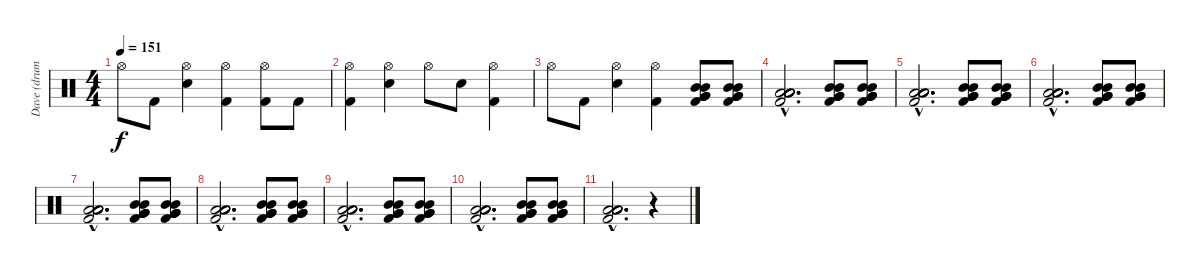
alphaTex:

\track ("Dave (drums)" "Dave (drum") {instrument percussion}
\staff {score}
\articulation defaults
\ts (4 4)
\tempo 151
\clef neutral
\ks c "Hi-Hat (open)".8{dy f} "Kick (hit) 2".8
("Hi-Hat (open)" "Electric Snare (hit)").4 ("Hi-Hat (open)" "Kick (hit) 2").4 ("Hi-Hat (open)" "Kick (hit) 2").8 "Kick (hit) 2".8 |
("Hi-Hat (open)" "Kick (hit) 2").4 ("Hi-Hat (open)" "Electric Snare (hit)").4 "Hi-Hat (open)".8 "Electric Snare (hit)".8 ("Hi-Hat (open)" "Kick (hit) 2").4 |
"Hi-Hat (open)".8 "Kick (hit) 2".8 ("Hi-Hat (open)" "Electric Snare (hit)").4 ("Hi-Hat (open)" "Kick (hit) 2").4 ("Very Low Tom (hit)" "Very Low Tom (hit)" "Very Low Tom (hit)" "Mid Tom (hit)" "Mid Tom (hit)" "Kick (hit) 2").8 ("Very Low Tom (hit)" "Very Low Tom (hit)" "Very Low Tom (hit)" "Mid Tom (hit)" "Mid Tom (hit)" "Kick (hit) 2").8 |
("Low Floor Tom (hit)"{hac} "Low Floor Tom (hit)"{hac} "Low Floor Tom (hit)"{hac} "Low Tom (hit)"{hac} "Low Tom (hit)"{hac} "Kick (hit) 2"{hac}).2{d} ("Very Low Tom (hit)" "Very Low Tom (hit)" "Very Low Tom (hit)" "Mid Tom (hit)" "Mid Tom (hit)" "Kick (hit) 2").8 ("Very Low Tom (hit)" "Very Low Tom (hit)" "Very Low Tom (hit)" "Mid Tom (hit)" "Mid Tom (hit)" "Kick (hit) 2").8 |
("Low Floor Tom (hit)"{hac} "Low Floor Tom (hit)"{hac} "Low Floor Tom (hit)"{hac} "Low Tom (hit)"{hac} "Low Tom (hit)"{hac} "Kick (hit) 2"{hac}).2{d} ("Very Low Tom (hit)" "Very Low Tom (hit)" "Very Low Tom (hit)" "Mid Tom (hit)" "Mid Tom (hit)" "Kick (hit) 2").8 ("Very Low Tom (hit)" "Very Low Tom (hit)" "Very Low Tom (hit)" "Mid Tom (hit)" "Mid Tom (hit)" "Kick (hit) 2").8 |
("Low Floor Tom (hit)"{hac} "Low Floor Tom (hit)"{hac} "Low Floor Tom (hit)"{hac} "Low Tom (hit)"{hac} "Low Tom (hit)"{hac} "Kick (hit) 2"{hac}).2{d} ("Very Low Tom (hit)" "Very Low Tom (hit)" "Very Low Tom (hit)" "Mid Tom (hit)" "Mid Tom (hit)" "Kick (hit) 2").8 ("Very Low Tom (hit)" "Very Low Tom (hit)" "Very Low Tom (hit)" "Mid Tom (hit)" "Mid Tom (hit)" "Kick (hit) 2").8 |
("Low Floor Tom (hit)"{hac} "Low Floor Tom (hit)"{hac} "Low Floor Tom (hit)"{hac} "Low Tom (hit)"{hac} "Low Tom (hit)"{hac} "Kick (hit) 2"{hac}).2{d} ("Very Low Tom (hit)" "Very Low Tom (hit)" "Very Low Tom (hit)" "Mid Tom (hit)" "Mid Tom (hit)" "Kick (hit) 2").8 ("Very Low Tom (hit)" "Very Low Tom (hit)" "Very Low Tom (hit)" "Mid Tom (hit)" "Mid Tom (hit)" "Kick (hit) 2").8 |
("Low Floor Tom (hit)"{hac} "Low Floor Tom (hit)"{hac} "Low Floor Tom (hit)"{hac} "Low Tom (hit)"{hac} "Low Tom (hit)"{hac} "Kick (hit) 2"{hac}).2{d} ("Very Low Tom (hit)" "Very Low Tom (hit)" "Very Low Tom (hit)" "Mid Tom (hit)" "Mid Tom (hit)" "Kick (hit) 2").8 ("Very Low Tom (hit)" "Very Low Tom (hit)" "Very Low Tom (hit)" "Mid Tom (hit)" "Mid Tom (hit)" "Kick (hit) 2").8 |
("Low Floor Tom (hit)"{hac} "Low Floor Tom (hit)"{hac} "Low Floor Tom (hit)"{hac} "Low Tom (hit)"{hac} "Low Tom (hit)"{hac} "Kick (hit) 2"{hac}).2{d} ("Very Low Tom (hit)" "Very Low Tom (hit)" "Very Low Tom (hit)" "Mid Tom (hit)" "Mid Tom (hit)" "Kick (hit) 2").8 ("Very Low Tom (hit)" "Very Low Tom (hit)" "Very Low Tom (hit)" "Mid Tom (hit)" "Mid Tom (hit)" "Kick (hit) 2").8 |
("Low Floor Tom (hit)"{hac} "Low Floor Tom (hit)"{hac} "Low Floor Tom (hit)"{hac} "Low Tom (hit)"{hac} "Low Tom (hit)"{hac} "Kick (hit) 2"{hac}).2{d} ("Very Low Tom (hit)" "Very Low Tom (hit)" "Very Low Tom (hit)" "Mid Tom (hit)" "Mid Tom (hit)" "Kick (hit) 2").8 ("Very Low Tom (hit)" "Very Low Tom (hit)" "Very Low Tom (hit)" "Mid Tom (hit)" "Mid Tom (hit)" "Kick (hit) 2").8 |
("Low Floor Tom (hit)"{hac} "Low Floor Tom (hit)"{hac} "Low Floor Tom (hit)"{hac} "Low Tom (hit)"{hac} "Low Tom (hit)"{hac} "Kick (hit) 2"{hac}).2{d} r.4
